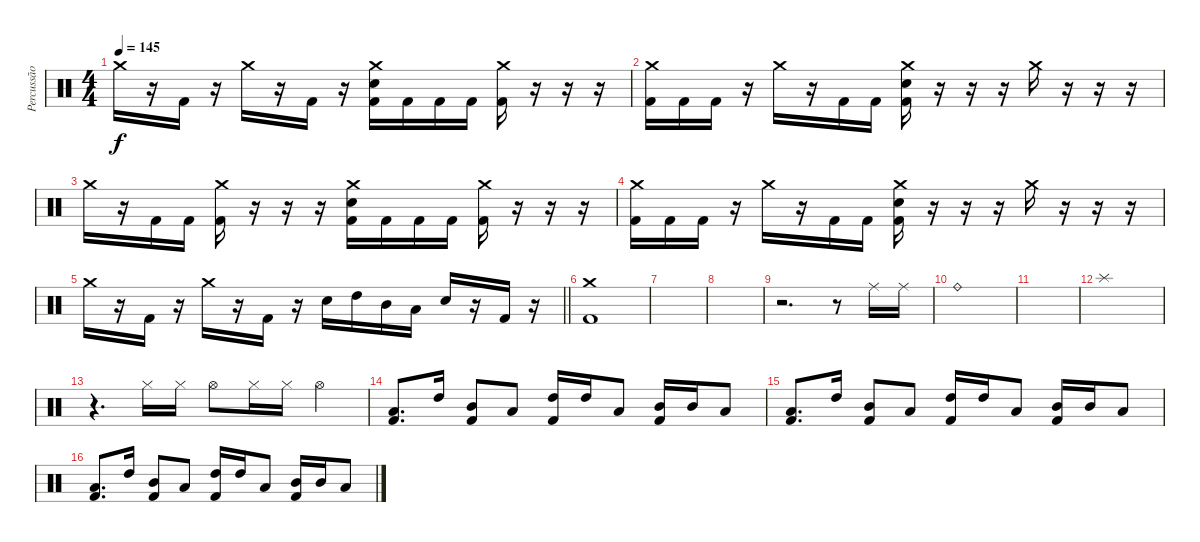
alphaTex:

\track ("Percussão" "Percussão") {instrument percussion}
\staff {score}
\articulation defaults
\ts (4 4)
\tempo 145
\clef neutral
\ks c "Crash medium (hit)".16{dy f}
r.16 "Kick (hit) 2".16 r.16 "Crash medium (hit)".16 r.16 "Kick (hit) 2".16 r.16 ("Crash medium (hit)" "Electric Snare (hit)" "Kick (hit) 2").16 "Kick (hit) 2".16 "Kick (hit) 2".16 "Kick (hit) 2".16 ("Crash medium (hit)" "Kick (hit) 2").16 r.16 r.16 r.16 |
("Crash medium (hit)" "Kick (hit) 2").16 "Kick (hit) 2".16 "Kick (hit) 2".16 r.16 "Crash medium (hit)".16 r.16 "Kick (hit) 2".16 "Kick (hit) 2".16 ("Crash medium (hit)" "Electric Snare (hit)" "Kick (hit) 2").16 r.16 r.16 r.16 "Crash medium (hit)".16 r.16 r.16 r.16 |
"Crash medium (hit)".16 r.16 "Kick (hit) 2".16 "Kick (hit) 2".16 ("Crash medium (hit)" "Kick (hit) 2").16 r.16 r.16 r.16 ("Crash medium (hit)" "Electric Snare (hit)" "Kick (hit) 2").16 "Kick (hit) 2".16 "Kick (hit) 2".16 "Kick (hit) 2".16 ("Crash medium (hit)" "Kick (hit) 2").16 r.16 r.16 r.16 |
("Crash medium (hit)" "Kick (hit) 2").16 "Kick (hit) 2".16 "Kick (hit) 2".16 r.16 "Crash medium (hit)".16 r.16 "Kick (hit) 2".16 "Kick (hit) 2".16 ("Crash medium (hit)" "Electric Snare (hit)" "Kick (hit) 2").16 r.16 r.16 r.16 "Crash medium (hit)".16 r.16 r.16 r.16 |
\barLineRight lightlight "Crash medium (hit)".16
r.16 "Kick (hit) 2".16 r.16 "Crash medium (hit)".16 r.16 "Kick (hit) 2".16 r.16 "Electric Snare (hit)".16 "High Tom (hit)".16 "Mid Tom (hit)".16 "Low Tom (hit)".16 "Electric Snare (hit)".16 r.16 "Kick (hit) 2".16 r.16 |
("Crash medium (hit)" "Kick (hit) 2").1 |
|
|
r.2{d} r.8 "Ride (middle)".16 "Ride (middle)".16 |
"Ride (bell)".1 |
|
"Splash (hit)".1 |
r.4{d} "Hi-Hat (closed)".16 "Hi-Hat (closed)".16 "Hi-Hat (open)".8 "Hi-Hat (closed)".16 "Hi-Hat (closed)".16 "Hi-Hat (open)".4 |
("Low Tom (hit)" "Kick (hit) 2").8{d} "High Tom (hit)".16 ("Mid Tom (hit)" "Kick (hit) 2").8 "Low Tom (hit)".8 ("High Tom (hit)" "Kick (hit) 2").16 "High Tom (hit)".16 "Low Tom (hit)".8 ("Mid Tom (hit)" "Kick (hit) 2").16 "Mid Tom (hit)".16 "Low Tom (hit)".8 |
("Low Tom (hit)" "Kick (hit) 2").8{d} "High Tom (hit)".16 ("Mid Tom (hit)" "Kick (hit) 2").8 "Low Tom (hit)".8 ("High Tom (hit)" "Kick (hit) 2").16 "High Tom (hit)".16 "Low Tom (hit)".8 ("Mid Tom (hit)" "Kick (hit) 2").16 "Mid Tom (hit)".16 "Low Tom (hit)".8 |
("Low Tom (hit)" "Kick (hit) 2").8{d} "High Tom (hit)".16 ("Mid Tom (hit)" "Kick (hit) 2").8 "Low Tom (hit)".8 ("High Tom (hit)" "Kick (hit) 2").16 "High Tom (hit)".16 "Low Tom (hit)".8 ("Mid Tom (hit)" "Kick (hit) 2").16 "Mid Tom (hit)".16 "Low Tom (hit)".8
